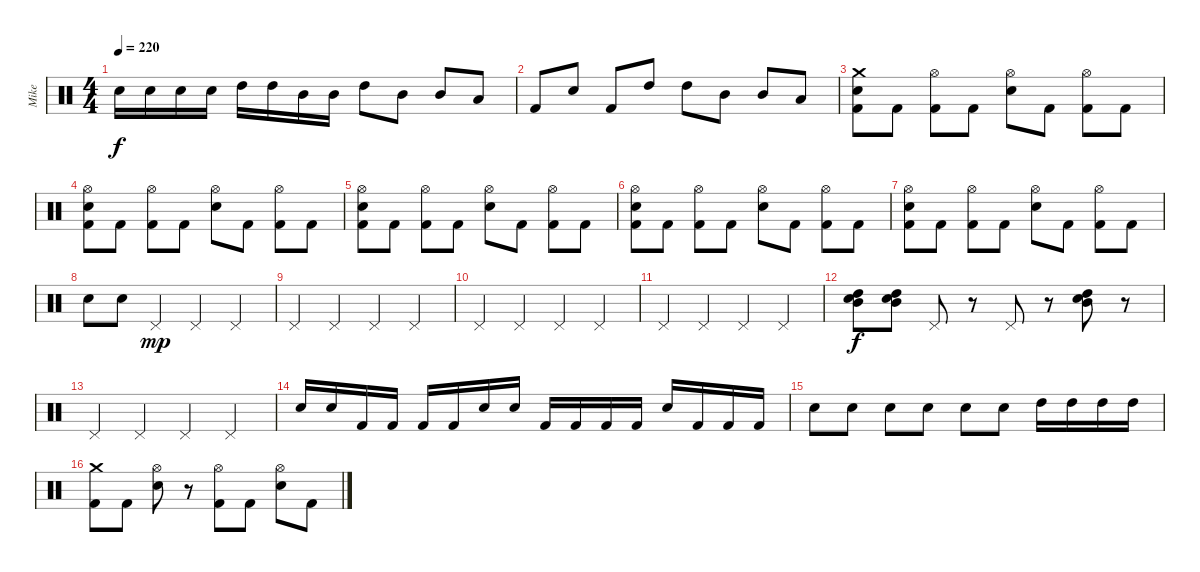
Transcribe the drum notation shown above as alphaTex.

\track ("Mike" "Mike") {instrument percussion}
\staff {score}
\articulation defaults
\ts (4 4)
\tempo 220
\clef neutral
\ks c "Electric Snare (hit)".16{dy f} "Electric Snare (hit)".16 "Electric Snare (hit)".16 "Electric Snare (hit)".16 "High Tom (hit)".16 "High Tom (hit)".16 "Mid Tom (hit)".16 "Mid Tom (hit)".16 "High Tom (hit)".8 "Mid Tom (hit)".8 "Mid Tom (hit)".8 "Low Tom (hit)".8
|
"Kick (hit) 2".8 "Electric Snare (hit)".8 "Kick (hit) 2".8 "High Tom (hit)".8 "High Tom (hit)".8 "Mid Tom (hit)".8 "Mid Tom (hit)".8 "Low Tom (hit)".8 |
("Crash medium (hit)" "Electric Snare (hit)" "Kick (hit) 2").8 "Kick (hit) 2".8 ("Hi-Hat (open)" "Kick (hit) 2").8 "Kick (hit) 2".8 ("Hi-Hat (open)" "Electric Snare (hit)").8 "Kick (hit) 2".8 ("Hi-Hat (open)" "Kick (hit) 2").8 "Kick (hit) 2".8 |
("Hi-Hat (open)" "Electric Snare (hit)" "Kick (hit) 2").8 "Kick (hit) 2".8 ("Hi-Hat (open)" "Kick (hit) 2").8 "Kick (hit) 2".8 ("Hi-Hat (open)" "Electric Snare (hit)").8 "Kick (hit) 2".8 ("Hi-Hat (open)" "Kick (hit) 2").8 "Kick (hit) 2".8 |
("Hi-Hat (open)" "Electric Snare (hit)" "Kick (hit) 2").8 "Kick (hit) 2".8 ("Hi-Hat (open)" "Kick (hit) 2").8 "Kick (hit) 2".8 ("Hi-Hat (open)" "Electric Snare (hit)").8 "Kick (hit) 2".8 ("Hi-Hat (open)" "Kick (hit) 2").8 "Kick (hit) 2".8 |
("Hi-Hat (open)" "Electric Snare (hit)" "Kick (hit) 2").8 "Kick (hit) 2".8 ("Hi-Hat (open)" "Kick (hit) 2").8 "Kick (hit) 2".8 ("Hi-Hat (open)" "Electric Snare (hit)").8 "Kick (hit) 2".8 ("Hi-Hat (open)" "Kick (hit) 2").8 "Kick (hit) 2".8 |
("Hi-Hat (open)" "Electric Snare (hit)" "Kick (hit) 2").8 "Kick (hit) 2".8 ("Hi-Hat (open)" "Kick (hit) 2").8 "Kick (hit) 2".8 ("Hi-Hat (open)" "Electric Snare (hit)").8 "Kick (hit) 2".8 ("Hi-Hat (open)" "Kick (hit) 2").8 "Kick (hit) 2".8 |
"Electric Snare (hit)".8 "Electric Snare (hit)".8 "Pedal Hi-Hat (hit)".4{dy mp} "Pedal Hi-Hat (hit)".4 "Pedal Hi-Hat (hit)".4 |
"Pedal Hi-Hat (hit)".4 "Pedal Hi-Hat (hit)".4 "Pedal Hi-Hat (hit)".4 "Pedal Hi-Hat (hit)".4 |
"Pedal Hi-Hat (hit)".4 "Pedal Hi-Hat (hit)".4 "Pedal Hi-Hat (hit)".4 "Pedal Hi-Hat (hit)".4 |
"Pedal Hi-Hat (hit)".4 "Pedal Hi-Hat (hit)".4 "Pedal Hi-Hat (hit)".4 "Pedal Hi-Hat (hit)".4 |
("Electric Snare (hit)" "High Tom (hit)" "Mid Tom (hit)").8{dy f} ("Electric Snare (hit)" "High Tom (hit)" "Mid Tom (hit)").8 "Pedal Hi-Hat (hit)".8 r.8 "Pedal Hi-Hat (hit)".8 r.8 ("Electric Snare (hit)" "High Tom (hit)" "Mid Tom (hit)").8 r.8 |
"Pedal Hi-Hat (hit)".4 "Pedal Hi-Hat (hit)".4 "Pedal Hi-Hat (hit)".4 "Pedal Hi-Hat (hit)".4 |
"Electric Snare (hit)".16 "Electric Snare (hit)".16 "Kick (hit) 2".16 "Kick (hit) 2".16 "Kick (hit) 2".16 "Kick (hit) 2".16 "Electric Snare (hit)".16 "Electric Snare (hit)".16 "Kick (hit) 2".16 "Kick (hit) 2".16 "Kick (hit) 2".16 "Kick (hit) 2".16 "Electric Snare (hit)".16 "Kick (hit) 2".16 "Kick (hit) 2".16 "Kick (hit) 2".16 |
"Electric Snare (hit)".8 "Electric Snare (hit)".8 "Electric Snare (hit)".8 "Electric Snare (hit)".8 "Electric Snare (hit)".8 "Electric Snare (hit)".8 "High Tom (hit)".16 "High Tom (hit)".16 "High Tom (hit)".16 "High Tom (hit)".16 |
("Crash medium (hit)" "Kick (hit) 2").8 "Kick (hit) 2".8 ("Hi-Hat (open)" "Electric Snare (hit)").8 r.8 ("Hi-Hat (open)" "Kick (hit) 2").8 "Kick (hit) 2".8 ("Hi-Hat (open)" "Electric Snare (hit)").8 "Kick (hit) 2".8
